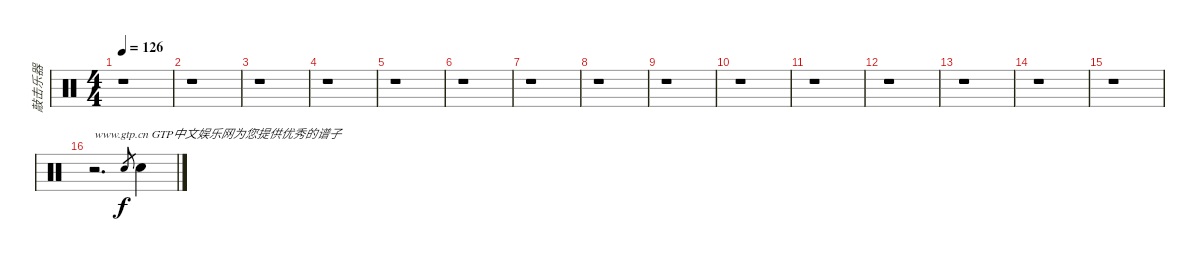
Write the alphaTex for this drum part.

\track ("敲击乐器" "敲击乐器") {instrument percussion}
\staff {score}
\articulation defaults
\ts (4 4)
\tempo 126
\clef neutral
\ks c
r.1{dy f} |
r.1 |
r.1 |
r.1 |
r.1 |
r.1 |
r.1 |
r.1 |
r.1 |
r.1 |
r.1 |
r.1 |
r.1 |
r.1 |
r.1 |
r.2{d txt "www.gtp.cn GTP中文娱乐网为您提供优秀的谱子"} "Electric Snare (hit)".8{gr} "Electric Snare (hit)".4
